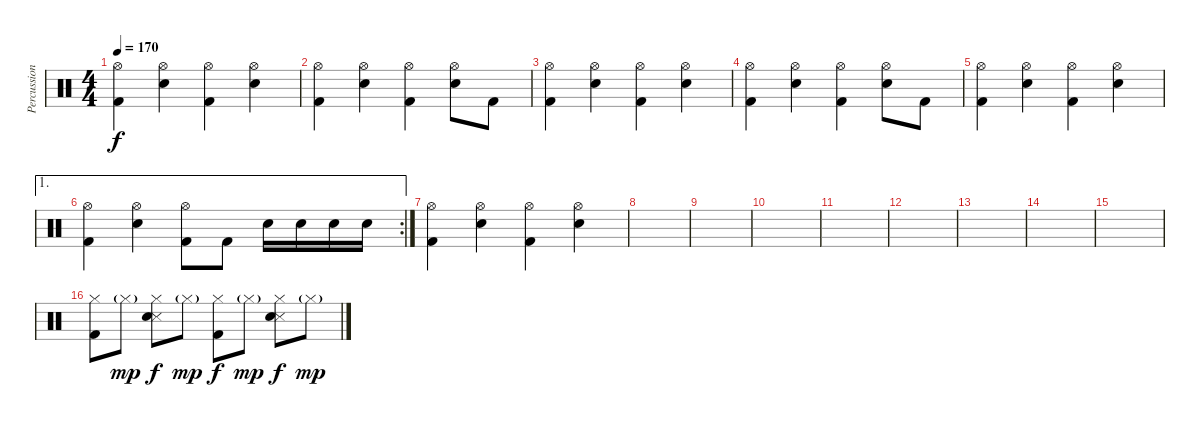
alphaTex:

\track ("Percussion" "Percussion") {instrument percussion}
\staff {score}
\articulation defaults
\ts (4 4)
\tempo 170
\clef neutral
\ks c
("Hi-Hat (open)" "Kick (hit) 2").4{dy f} ("Hi-Hat (open)" "Snare (hit) 2").4 ("Hi-Hat (open)" "Kick (hit) 2").4 ("Hi-Hat (open)" "Snare (hit) 2").4 |
("Hi-Hat (open)" "Kick (hit) 2").4 ("Hi-Hat (open)" "Snare (hit) 2").4 ("Hi-Hat (open)" "Kick (hit) 2").4 ("Hi-Hat (open)" "Snare (hit) 2").8 "Kick (hit) 2".8 |
("Hi-Hat (open)" "Kick (hit) 2").4 ("Hi-Hat (open)" "Snare (hit) 2").4 ("Hi-Hat (open)" "Kick (hit) 2").4 ("Hi-Hat (open)" "Snare (hit) 2").4 |
("Hi-Hat (open)" "Kick (hit) 2").4 ("Hi-Hat (open)" "Snare (hit) 2").4 ("Hi-Hat (open)" "Kick (hit) 2").4 ("Hi-Hat (open)" "Snare (hit) 2").8 "Kick (hit) 2".8 |
("Hi-Hat (open)" "Kick (hit) 2").4 ("Hi-Hat (open)" "Snare (hit) 2").4 ("Hi-Hat (open)" "Kick (hit) 2").4 ("Hi-Hat (open)" "Snare (hit) 2").4 |
\ae 1
\rc 2
("Hi-Hat (open)" "Kick (hit) 2").4 ("Hi-Hat (open)" "Snare (hit) 2").4 ("Hi-Hat (open)" "Kick (hit) 2").8 "Kick (hit) 2".8 "Snare (hit) 2".16 "Snare (hit) 2".16 "Snare (hit) 2".16 "Snare (hit) 2".16 |
("Hi-Hat (open)" "Kick (hit) 2").4 ("Hi-Hat (open)" "Snare (hit) 2").4 ("Hi-Hat (open)" "Kick (hit) 2").4 ("Hi-Hat (open)" "Snare (hit) 2").4 |
|
|
|
|
|
|
|
|
("Hi-Hat (closed)" "Kick (hit) 2").8 "Hi-Hat (closed)"{g}.8{dy mp} ("Hi-Hat (closed)" "Snare (side stick) 3" "Snare (hit) 2").8{dy f} "Hi-Hat (closed)"{g}.8{dy mp} ("Hi-Hat (closed)" "Kick (hit) 2").8{dy f} "Hi-Hat (closed)"{g}.8{dy mp} ("Hi-Hat (closed)" "Snare (side stick) 3" "Snare (hit) 2").8{dy f} "Hi-Hat (closed)"{g}.8{dy mp}
